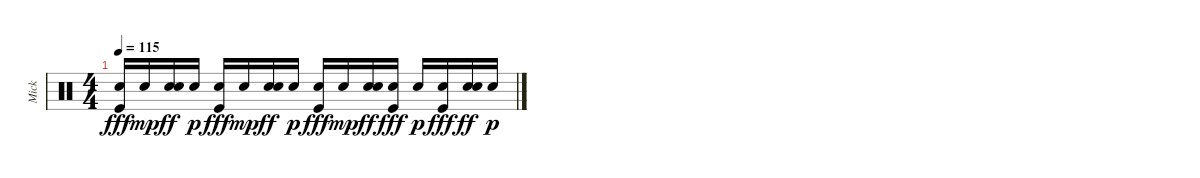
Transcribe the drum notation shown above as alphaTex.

\track ("Mick" "Mick") {instrument percussion}
\staff {score}
\articulation defaults
\ts (4 4)
\tempo 115
\clef neutral
\ks c
("Electric Snare (hit)" "Kick (hit)").16{dy fff} "Electric Snare (hit)".16{dy mp} ("Hand Clap (hit)" "Electric Snare (hit)").16{dy ff} "Electric Snare (hit)".16{dy p} ("Electric Snare (hit)" "Kick (hit)").16{dy fff} "Electric Snare (hit)".16{dy mp} ("Hand Clap (hit)" "Electric Snare (hit)").16{dy ff} "Electric Snare (hit)".16{dy p} ("Electric Snare (hit)" "Kick (hit)").16{dy fff} "Electric Snare (hit)".16{dy mp} ("Hand Clap (hit)" "Electric Snare (hit)").16{dy ff} ("Electric Snare (hit)" "Kick (hit)").16{dy fff} "Electric Snare (hit)".16{dy p} ("Electric Snare (hit)" "Kick (hit)").16{dy fff} ("Hand Clap (hit)" "Electric Snare (hit)").16{dy ff} "Electric Snare (hit)".16{dy p}
